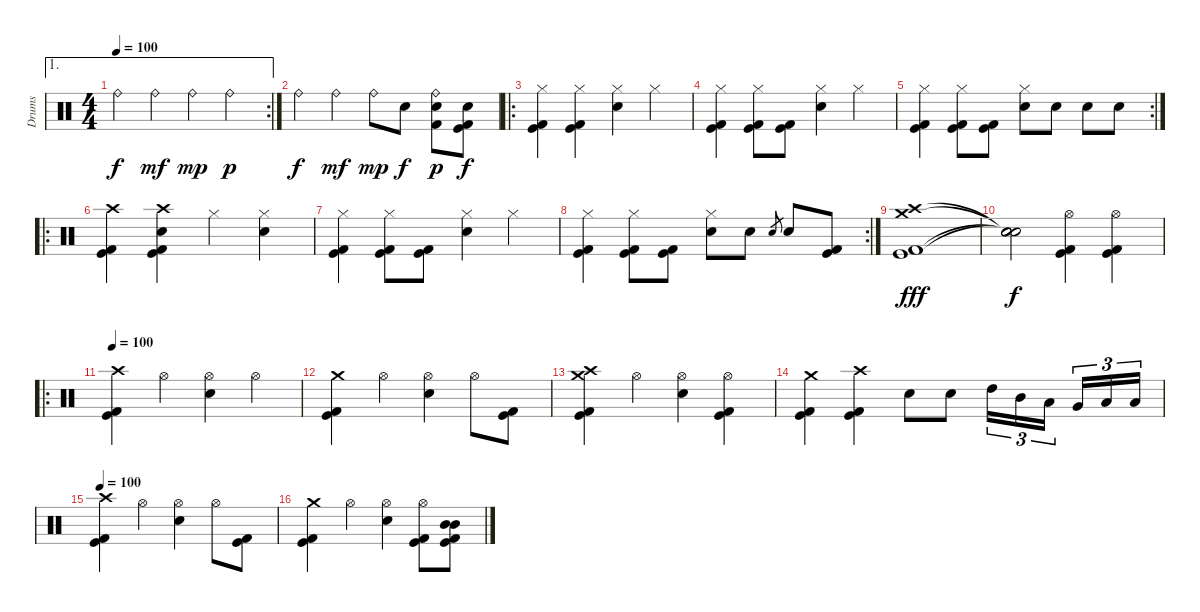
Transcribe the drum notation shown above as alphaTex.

\track ("Drums" "Drums") {instrument percussion}
\staff {score}
\articulation defaults
\ae 1
\rc 2
\ts (4 4)
\tempo 100
\clef neutral
\ks c "Ride (bell)".4{dy f} "Ride (bell)".4{dy mf} "Ride (bell)".4{dy mp} "Ride (bell)".4{dy p}
|
"Ride (bell)".4{dy f} "Ride (bell)".4{dy mf} "Ride (bell)".8{dy mp} "Snare (hit) 2".8{dy f} ("Ride (bell)" "Snare (hit) 2" "Kick (hit) 2").8{dy p} ("Snare (hit) 2" "Kick (hit)" "Kick (hit) 2").8{dy f} |
\ro
("Hi-Hat (closed)" "Kick (hit)" "Kick (hit) 2").4 ("Hi-Hat (closed)" "Kick (hit)" "Kick (hit) 2").4 ("Hi-Hat (closed)" "Snare (hit) 2").4 "Hi-Hat (closed)".4 |
("Hi-Hat (closed)" "Kick (hit)" "Kick (hit) 2").4 ("Hi-Hat (closed)" "Kick (hit)" "Kick (hit) 2").8 ("Kick (hit)" "Kick (hit) 2").8 ("Hi-Hat (closed)" "Snare (hit) 2").4 "Hi-Hat (closed)".4 |
\rc 2
("Hi-Hat (closed)" "Kick (hit)" "Kick (hit) 2").4 ("Hi-Hat (closed)" "Kick (hit)" "Kick (hit) 2").8 ("Kick (hit)" "Kick (hit) 2").8 ("Hi-Hat (closed)" "Snare (hit) 2").8 "Snare (hit) 2".8 "Snare (hit) 2".8 "Snare (hit) 2".8 |
\ro
("Crash high (hit)" "Kick (hit)" "Kick (hit) 2").4 ("Crash high (hit)" "Snare (hit) 2" "Kick (hit)" "Kick (hit) 2").4 "Hi-Hat (closed)".4 ("Hi-Hat (closed)" "Snare (hit) 2").4 |
("Hi-Hat (closed)" "Kick (hit)" "Kick (hit) 2").4 ("Hi-Hat (closed)" "Kick (hit)" "Kick (hit) 2").8 ("Kick (hit)" "Kick (hit) 2").8 ("Hi-Hat (closed)" "Snare (hit) 2").4 "Hi-Hat (closed)".4 |
\rc 2
("Hi-Hat (closed)" "Kick (hit)" "Kick (hit) 2").4 ("Hi-Hat (closed)" "Kick (hit)" "Kick (hit) 2").8 ("Kick (hit)" "Kick (hit) 2").8 ("Hi-Hat (closed)" "Snare (hit) 2").8 "Snare (hit) 2".8 "Snare (hit) 2".8{gr} "Snare (hit) 2".8 ("Kick (hit)" "Kick (hit) 2").8 |
("Crash high (hit)" "Crash medium (hit)" "Kick (hit)" "Kick (hit) 2").1{dy fff} |
("Snare (hit)"{t} "Snare (hit)"{t} "Snare (hit)"{t} "Snare (hit)"{t}).2{dy f} ("Hi-Hat (open)" "Kick (hit)" "Kick (hit) 2").4 ("Hi-Hat (open)" "Kick (hit)" "Kick (hit) 2").4 |
\ro
\tempo 100
("Crash high (hit)" "Kick (hit)" "Kick (hit) 2").4{volume 16} "Hi-Hat (open)".4 ("Hi-Hat (open)" "Snare (hit) 2").4 "Hi-Hat (open)".4 |
("Crash medium (hit)" "Kick (hit)" "Kick (hit) 2").4 "Hi-Hat (open)".4 ("Hi-Hat (open)" "Snare (hit) 2").4 "Hi-Hat (open)".8 ("Kick (hit)" "Kick (hit) 2").8 |
("Crash high (hit)" "Crash medium (hit)" "Kick (hit)" "Kick (hit) 2").4 "Hi-Hat (open)".4 ("Hi-Hat (open)" "Snare (hit) 2").4 ("Hi-Hat (open)" "Kick (hit)" "Kick (hit) 2").4 |
("Crash medium (hit)" "Kick (hit)" "Kick (hit) 2").4 ("Crash high (hit)" "Kick (hit)" "Kick (hit) 2").4 "Snare (hit) 2".8 "Snare (hit) 2".8 "High Tom (hit)".16{tu (3 2)} "Mid Tom (hit)".16{tu (3 2)} "Low Tom (hit)".16{tu (3 2)} "Very Low Tom (hit)".16{tu (3 2)} "Low Floor Tom (hit)".16{tu (3 2)} "Low Floor Tom (hit)".16{tu (3 2)} |
\tempo 100
("Crash high (hit)" "Kick (hit)" "Kick (hit) 2").4 "Hi-Hat (open)".4 ("Hi-Hat (open)" "Snare (hit) 2").4 "Hi-Hat (open)".8 ("Kick (hit)" "Kick (hit) 2").8 |
("Crash medium (hit)" "Kick (hit)" "Kick (hit) 2").4 "Hi-Hat (open)".4 ("Hi-Hat (open)" "Snare (hit) 2").4 ("Hi-Hat (open)" "Kick (hit)" "Kick (hit) 2").8 ("Mid Tom (hit)" "Mid Tom (hit)" "Kick (hit)" "Kick (hit) 2").8
